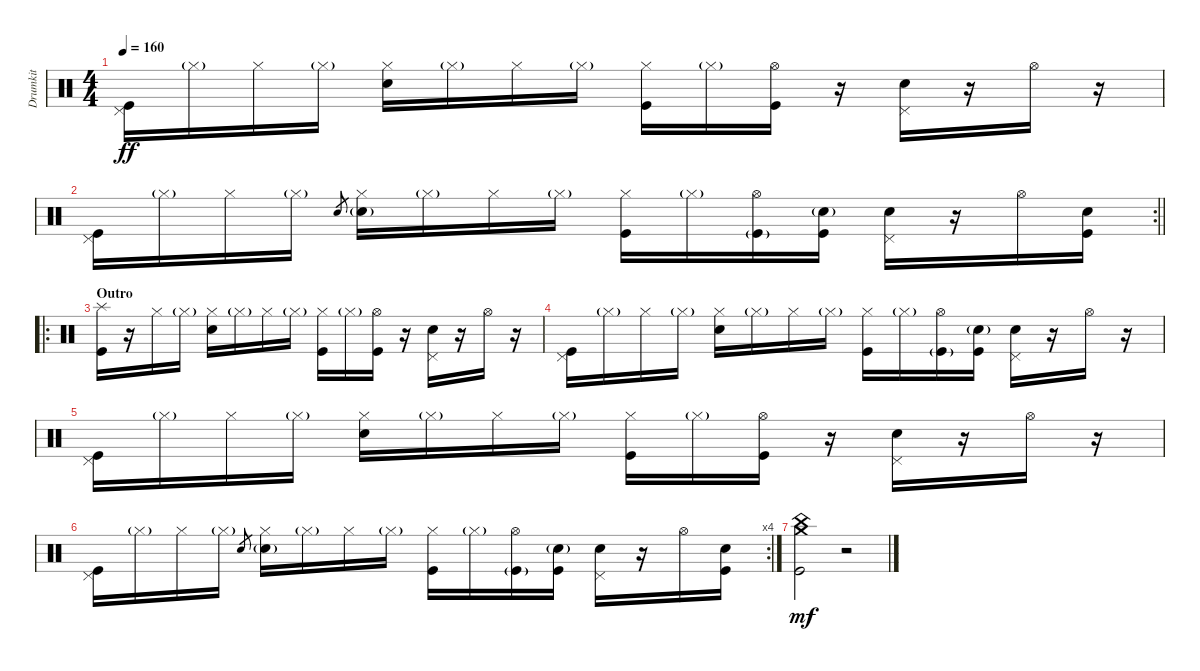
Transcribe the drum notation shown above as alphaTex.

\track ("Drumkit" "Drumkit") {instrument percussion}
\staff {score}
\articulation defaults
\ts (4 4)
\tempo 160
\clef neutral
\ks c
("Pedal Hi-Hat (hit)" "Kick (hit)").16{dy ff} "Hi-Hat (closed)"{g}.16 "Hi-Hat (closed)".16 "Hi-Hat (closed)"{g}.16 ("Hi-Hat (closed)" "Snare (hit) 2").16 "Hi-Hat (closed)"{g}.16 "Hi-Hat (closed)".16 "Hi-Hat (closed)"{g}.16 ("Hi-Hat (closed)" "Kick (hit)").16 "Hi-Hat (closed)"{g}.16 ("Hi-Hat (open)" "Kick (hit)").16 r.16 ("Pedal Hi-Hat (hit)" "Snare (hit) 2").16 r.16 "Hi-Hat (open)".16 r.16 |
\rc 2
\barLineRight lightlight
("Pedal Hi-Hat (hit)" "Kick (hit)").16 "Hi-Hat (closed)"{g}.16 "Hi-Hat (closed)".16 "Hi-Hat (closed)"{g}.16 "Snare (hit)".8{gr} ("Hi-Hat (closed)" "Snare (hit) 2"{g}).16 "Hi-Hat (closed)"{g}.16 "Hi-Hat (closed)".16 "Hi-Hat (closed)"{g}.16 ("Hi-Hat (closed)" "Kick (hit)").16 "Hi-Hat (closed)"{g}.16 ("Hi-Hat (open)" "Kick (hit)"{g}).16 ("Snare (hit) 2"{g} "Kick (hit)").16 ("Pedal Hi-Hat (hit)" "Snare (hit) 2").16 r.16 "Hi-Hat (open)".16 ("Snare (hit) 2" "Kick (hit)").16 |
\ro
\section ("" "Outro")
("Splash (hit)" "Kick (hit)").16 r.16 "Hi-Hat (closed)".16 "Hi-Hat (closed)"{g}.16 ("Hi-Hat (closed)" "Snare (hit) 2").16 "Hi-Hat (closed)"{g}.16 "Hi-Hat (closed)".16 "Hi-Hat (closed)"{g}.16 ("Hi-Hat (closed)" "Kick (hit)").16 "Hi-Hat (closed)"{g}.16 ("Hi-Hat (open)" "Kick (hit)").16 r.16 ("Pedal Hi-Hat (hit)" "Snare (hit) 2").16 r.16 "Hi-Hat (open)".16 r.16 |
("Pedal Hi-Hat (hit)" "Kick (hit)").16 "Hi-Hat (closed)"{g}.16 "Hi-Hat (closed)".16 "Hi-Hat (closed)"{g}.16 ("Hi-Hat (closed)" "Snare (hit) 2").16 "Hi-Hat (closed)"{g}.16 "Hi-Hat (closed)".16 "Hi-Hat (closed)"{g}.16 ("Hi-Hat (closed)" "Kick (hit)").16 "Hi-Hat (closed)"{g}.16 ("Hi-Hat (open)" "Kick (hit)"{g}).16 ("Snare (hit) 2"{g} "Kick (hit)").16 ("Pedal Hi-Hat (hit)" "Snare (hit) 2").16 r.16 "Hi-Hat (open)".16 r.16 |
("Pedal Hi-Hat (hit)" "Kick (hit)").16 "Hi-Hat (closed)"{g}.16 "Hi-Hat (closed)".16 "Hi-Hat (closed)"{g}.16 ("Hi-Hat (closed)" "Snare (hit) 2").16 "Hi-Hat (closed)"{g}.16 "Hi-Hat (closed)".16 "Hi-Hat (closed)"{g}.16 ("Hi-Hat (closed)" "Kick (hit)").16 "Hi-Hat (closed)"{g}.16 ("Hi-Hat (open)" "Kick (hit)").16 r.16 ("Pedal Hi-Hat (hit)" "Snare (hit) 2").16 r.16 "Hi-Hat (open)".16 r.16 |
\rc 4
("Pedal Hi-Hat (hit)" "Kick (hit)").16 "Hi-Hat (closed)"{g}.16 "Hi-Hat (closed)".16 "Hi-Hat (closed)"{g}.16 "Snare (hit)".8{gr} ("Hi-Hat (closed)" "Snare (hit) 2"{g}).16 "Hi-Hat (closed)"{g}.16 "Hi-Hat (closed)".16 "Hi-Hat (closed)"{g}.16 ("Hi-Hat (closed)" "Kick (hit)").16 "Hi-Hat (closed)"{g}.16 ("Hi-Hat (open)" "Kick (hit)"{g}).16 ("Snare (hit) 2"{g} "Kick (hit)").16 ("Pedal Hi-Hat (hit)" "Snare (hit) 2").16 r.16 "Hi-Hat (open)".16 ("Snare (hit) 2" "Kick (hit)").16 |
("Crash medium (hit)" "China (hit)" "Kick (hit)").2{dy mf} r.2
